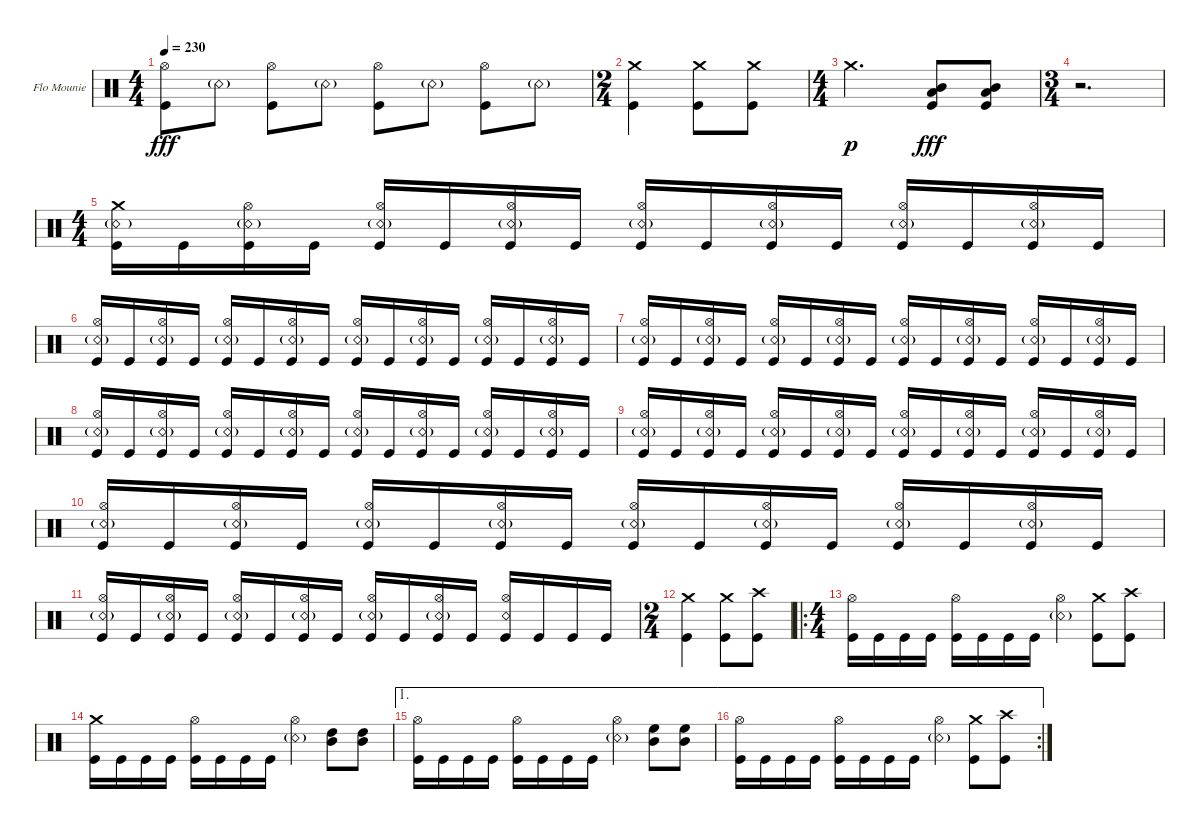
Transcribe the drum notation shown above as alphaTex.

\bracketExtendMode groupsimilarinstruments
\firstSystemTrackNameOrientation horizontal
\otherSystemsTrackNameOrientation horizontal
\track ("Flo Mounier" "Flo Mounie") {instrument percussion}
\staff {score}
\articulation defaults
\ts (4 4)
\tempo 230
\clef neutral
\ks c
("Kick (hit)" "Hi-Hat (open)").8{dy fff} "Snare (rim shot)"{g}.8 ("Kick (hit)" "Hi-Hat (open)").8 "Snare (rim shot)"{g}.8 ("Kick (hit)" "Hi-Hat (open)").8 "Snare (rim shot)"{g}.8 ("Kick (hit)" "Hi-Hat (open)").8 "Snare (rim shot)"{g}.8 |
\ts (2 4)
("Crash medium (hit)" "Kick (hit)").4 ("Crash medium (hit)" "Kick (hit)").8 ("Crash medium (hit)" "Kick (hit)").8 |
\ts (4 4)
"Crash medium (hit)".2{d dy p} ("Low Tom (hit)" "Mid Tom (hit)" "Kick (hit)").8{dy fff} ("Mid Tom (hit)" "Low Tom (hit)" "Kick (hit)").8 |
\ts (3 4)
r.2{d} |
\ts (4 4)
("Snare (rim shot)"{g} "Kick (hit)" "Crash medium (hit)").16 "Kick (hit)".16 ("Snare (rim shot)"{g} "Kick (hit)" "Hi-Hat (open)").16 "Kick (hit)".16 ("Snare (rim shot)"{g} "Kick (hit)" "Hi-Hat (open)").16 "Kick (hit)".16 ("Snare (rim shot)"{g} "Kick (hit)" "Hi-Hat (open)").16 "Kick (hit)".16 ("Snare (rim shot)"{g} "Kick (hit)" "Hi-Hat (open)").16 "Kick (hit)".16 ("Snare (rim shot)"{g} "Kick (hit)" "Hi-Hat (open)").16 "Kick (hit)".16 ("Snare (rim shot)"{g} "Kick (hit)" "Hi-Hat (open)").16 "Kick (hit)".16 ("Snare (rim shot)"{g} "Kick (hit)" "Hi-Hat (open)").16 "Kick (hit)".16 |
("Hi-Hat (open)" "Kick (hit)" "Snare (rim shot)"{g}).16 "Kick (hit)".16 ("Snare (rim shot)"{g} "Kick (hit)" "Hi-Hat (open)").16 "Kick (hit)".16 ("Snare (rim shot)"{g} "Kick (hit)" "Hi-Hat (open)").16 "Kick (hit)".16 ("Snare (rim shot)"{g} "Kick (hit)" "Hi-Hat (open)").16 "Kick (hit)".16 ("Snare (rim shot)"{g} "Kick (hit)" "Hi-Hat (open)").16 "Kick (hit)".16 ("Snare (rim shot)"{g} "Kick (hit)" "Hi-Hat (open)").16 "Kick (hit)".16 ("Snare (rim shot)"{g} "Kick (hit)" "Hi-Hat (open)").16 "Kick (hit)".16 ("Snare (rim shot)"{g} "Kick (hit)" "Hi-Hat (open)").16 "Kick (hit)".16 |
("Hi-Hat (open)" "Kick (hit)" "Snare (rim shot)"{g}).16 "Kick (hit)".16 ("Snare (rim shot)"{g} "Kick (hit)" "Hi-Hat (open)").16 "Kick (hit)".16 ("Snare (rim shot)"{g} "Kick (hit)" "Hi-Hat (open)").16 "Kick (hit)".16 ("Snare (rim shot)"{g} "Kick (hit)" "Hi-Hat (open)").16 "Kick (hit)".16 ("Snare (rim shot)"{g} "Kick (hit)" "Hi-Hat (open)").16 "Kick (hit)".16 ("Snare (rim shot)"{g} "Kick (hit)" "Hi-Hat (open)").16 "Kick (hit)".16 ("Snare (rim shot)"{g} "Kick (hit)" "Hi-Hat (open)").16 "Kick (hit)".16 ("Snare (rim shot)"{g} "Kick (hit)" "Hi-Hat (open)").16 "Kick (hit)".16 |
("Hi-Hat (open)" "Kick (hit)" "Snare (rim shot)"{g}).16 "Kick (hit)".16 ("Snare (rim shot)"{g} "Kick (hit)" "Hi-Hat (open)").16 "Kick (hit)".16 ("Snare (rim shot)"{g} "Kick (hit)" "Hi-Hat (open)").16 "Kick (hit)".16 ("Snare (rim shot)"{g} "Kick (hit)" "Hi-Hat (open)").16 "Kick (hit)".16 ("Snare (rim shot)"{g} "Kick (hit)" "Hi-Hat (open)").16 "Kick (hit)".16 ("Snare (rim shot)"{g} "Kick (hit)" "Hi-Hat (open)").16 "Kick (hit)".16 ("Snare (rim shot)"{g} "Kick (hit)" "Hi-Hat (open)").16 "Kick (hit)".16 ("Snare (rim shot)"{g} "Kick (hit)" "Hi-Hat (open)").16 "Kick (hit)".16 |
("Hi-Hat (open)" "Kick (hit)" "Snare (rim shot)"{g}).16 "Kick (hit)".16 ("Snare (rim shot)"{g} "Kick (hit)" "Hi-Hat (open)").16 "Kick (hit)".16 ("Snare (rim shot)"{g} "Kick (hit)" "Hi-Hat (open)").16 "Kick (hit)".16 ("Snare (rim shot)"{g} "Kick (hit)" "Hi-Hat (open)").16 "Kick (hit)".16 ("Snare (rim shot)"{g} "Kick (hit)" "Hi-Hat (open)").16 "Kick (hit)".16 ("Snare (rim shot)"{g} "Kick (hit)" "Hi-Hat (open)").16 "Kick (hit)".16 ("Snare (rim shot)"{g} "Kick (hit)" "Hi-Hat (open)").16 "Kick (hit)".16 ("Snare (rim shot)"{g} "Kick (hit)" "Hi-Hat (open)").16 "Kick (hit)".16 |
("Hi-Hat (open)" "Kick (hit)" "Snare (rim shot)"{g}).16 "Kick (hit)".16 ("Snare (rim shot)"{g} "Kick (hit)" "Hi-Hat (open)").16 "Kick (hit)".16 ("Snare (rim shot)"{g} "Kick (hit)" "Hi-Hat (open)").16 "Kick (hit)".16 ("Snare (rim shot)"{g} "Kick (hit)" "Hi-Hat (open)").16 "Kick (hit)".16 ("Snare (rim shot)"{g} "Kick (hit)" "Hi-Hat (open)").16 "Kick (hit)".16 ("Snare (rim shot)"{g} "Kick (hit)" "Hi-Hat (open)").16 "Kick (hit)".16 ("Snare (rim shot)"{g} "Kick (hit)" "Hi-Hat (open)").16 "Kick (hit)".16 ("Snare (rim shot)"{g} "Kick (hit)" "Hi-Hat (open)").16 "Kick (hit)".16 |
("Hi-Hat (open)" "Kick (hit)" "Snare (rim shot)"{g}).16 "Kick (hit)".16 ("Snare (rim shot)"{g} "Kick (hit)" "Hi-Hat (open)").16 "Kick (hit)".16 ("Snare (rim shot)"{g} "Kick (hit)" "Hi-Hat (open)").16 "Kick (hit)".16 ("Snare (rim shot)"{g} "Kick (hit)" "Hi-Hat (open)").16 "Kick (hit)".16 ("Snare (rim shot)"{g} "Kick (hit)" "Hi-Hat (open)").16 "Kick (hit)".16 ("Snare (rim shot)"{g} "Kick (hit)" "Hi-Hat (open)").16 "Kick (hit)".16 ("Snare (rim shot)" "Kick (hit)" "Hi-Hat (open)").16 "Kick (hit)".16 "Kick (hit)".16 "Kick (hit)".16 |
\ts (2 4)
("Kick (hit)" "Crash medium (hit)").4 ("Kick (hit)" "Crash medium (hit)").8 ("Kick (hit)" "Crash high (hit)").8 |
\ro
\ts (4 4)
("Kick (hit)" "Hi-Hat (open)").16 "Kick (hit)".16 "Kick (hit)".16 "Kick (hit)".16 ("Kick (hit)" "Hi-Hat (open)").16 "Kick (hit)".16 "Kick (hit)".16 "Kick (hit)".16 ("Snare (rim shot)"{g} "Hi-Hat (open)").4 ("Crash medium (hit)" "Kick (hit)").8 ("Crash high (hit)" "Kick (hit)").8 |
("Kick (hit)" "Crash medium (hit)").16 "Kick (hit)".16 "Kick (hit)".16 "Kick (hit)".16 ("Kick (hit)" "Hi-Hat (open)").16 "Kick (hit)".16 "Kick (hit)".16 "Kick (hit)".16 ("Snare (rim shot)"{g} "Hi-Hat (open)").4 ("Mid Tom (hit)" "High Tom (hit)").8 ("High Tom (hit)" "Mid Tom (hit)").8 |
\ae 1
("Kick (hit)" "Hi-Hat (open)").16 "Kick (hit)".16 "Kick (hit)".16 "Kick (hit)".16 ("Kick (hit)" "Hi-Hat (open)").16 "Kick (hit)".16 "Kick (hit)".16 "Kick (hit)".16 ("Snare (rim shot)"{g} "Hi-Hat (open)").4 ("Mid Tom (hit)" "High Floor Tom (hit)").8 ("Mid Tom (hit)" "High Floor Tom (hit)").8 |
\ae 1
\rc 2
("Kick (hit)" "Hi-Hat (open)").16 "Kick (hit)".16 "Kick (hit)".16 "Kick (hit)".16 ("Kick (hit)" "Hi-Hat (open)").16 "Kick (hit)".16 "Kick (hit)".16 "Kick (hit)".16 ("Snare (rim shot)"{g} "Hi-Hat (open)").4 ("Crash medium (hit)" "Kick (hit)").8 ("Crash high (hit)" "Kick (hit)").8
